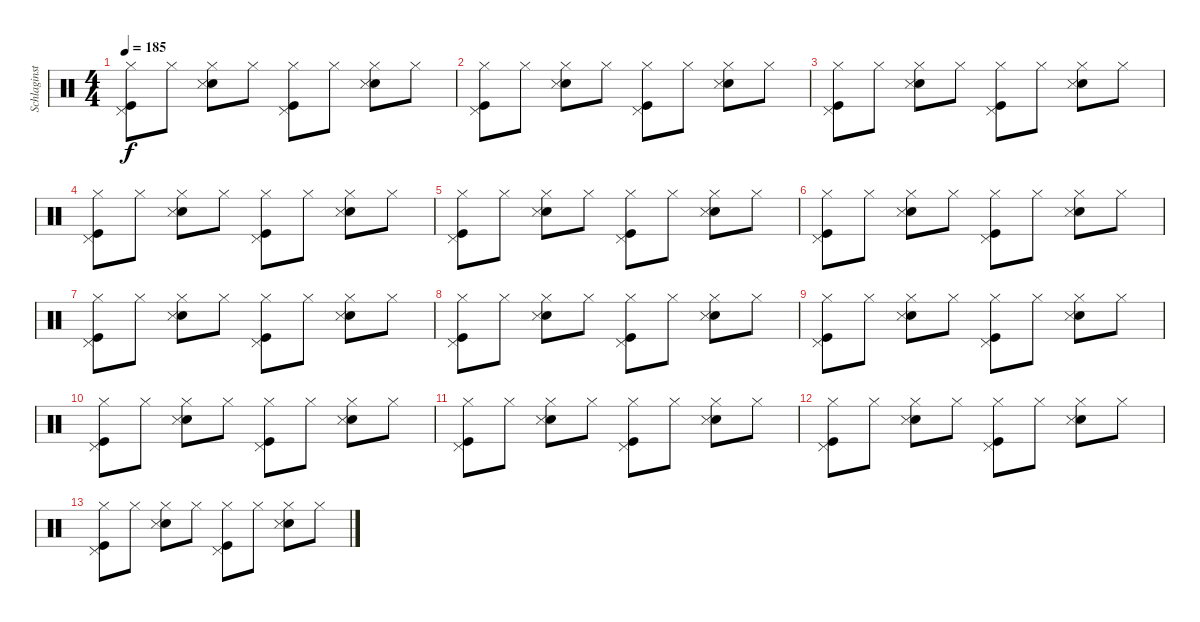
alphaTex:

\track ("Schlaginstrumente - Auswahl" "Schlaginst") {instrument percussion}
\staff {score}
\articulation defaults
\ts (4 4)
\tempo 185
\clef neutral
\ks c
("Kick (hit)" "Pedal Hi-Hat (hit)" "Hi-Hat (closed)").8{dy f} "Hi-Hat (closed)".8 ("Snare (hit) 2" "Snare (side stick) 3" "Hi-Hat (closed)").8 "Hi-Hat (closed)".8 ("Kick (hit)" "Pedal Hi-Hat (hit)" "Hi-Hat (closed)").8 "Hi-Hat (closed)".8 ("Snare (hit) 2" "Snare (side stick) 3" "Hi-Hat (closed)").8 "Hi-Hat (closed)".8 |
("Kick (hit)" "Pedal Hi-Hat (hit)" "Hi-Hat (closed)").8 "Hi-Hat (closed)".8 ("Snare (hit) 2" "Snare (side stick) 3" "Hi-Hat (closed)").8 "Hi-Hat (closed)".8 ("Kick (hit)" "Pedal Hi-Hat (hit)" "Hi-Hat (closed)").8 "Hi-Hat (closed)".8 ("Snare (hit) 2" "Snare (side stick) 3" "Hi-Hat (closed)").8 "Hi-Hat (closed)".8 |
("Kick (hit)" "Pedal Hi-Hat (hit)" "Hi-Hat (closed)").8 "Hi-Hat (closed)".8 ("Snare (hit) 2" "Snare (side stick) 3" "Hi-Hat (closed)").8 "Hi-Hat (closed)".8 ("Kick (hit)" "Pedal Hi-Hat (hit)" "Hi-Hat (closed)").8 "Hi-Hat (closed)".8 ("Snare (hit) 2" "Snare (side stick) 3" "Hi-Hat (closed)").8 "Hi-Hat (closed)".8 |
("Kick (hit)" "Pedal Hi-Hat (hit)" "Hi-Hat (closed)").8 "Hi-Hat (closed)".8 ("Snare (hit) 2" "Snare (side stick) 3" "Hi-Hat (closed)").8 "Hi-Hat (closed)".8 ("Kick (hit)" "Pedal Hi-Hat (hit)" "Hi-Hat (closed)").8 "Hi-Hat (closed)".8 ("Snare (hit) 2" "Snare (side stick) 3" "Hi-Hat (closed)").8 "Hi-Hat (closed)".8 |
("Kick (hit)" "Pedal Hi-Hat (hit)" "Hi-Hat (closed)").8 "Hi-Hat (closed)".8 ("Snare (hit) 2" "Snare (side stick) 3" "Hi-Hat (closed)").8 "Hi-Hat (closed)".8 ("Kick (hit)" "Pedal Hi-Hat (hit)" "Hi-Hat (closed)").8 "Hi-Hat (closed)".8 ("Snare (hit) 2" "Snare (side stick) 3" "Hi-Hat (closed)").8 "Hi-Hat (closed)".8 |
("Kick (hit)" "Pedal Hi-Hat (hit)" "Hi-Hat (closed)").8 "Hi-Hat (closed)".8 ("Snare (hit) 2" "Snare (side stick) 3" "Hi-Hat (closed)").8 "Hi-Hat (closed)".8 ("Kick (hit)" "Pedal Hi-Hat (hit)" "Hi-Hat (closed)").8 "Hi-Hat (closed)".8 ("Snare (hit) 2" "Snare (side stick) 3" "Hi-Hat (closed)").8 "Hi-Hat (closed)".8 |
("Kick (hit)" "Pedal Hi-Hat (hit)" "Hi-Hat (closed)").8 "Hi-Hat (closed)".8 ("Snare (hit) 2" "Snare (side stick) 3" "Hi-Hat (closed)").8 "Hi-Hat (closed)".8 ("Kick (hit)" "Pedal Hi-Hat (hit)" "Hi-Hat (closed)").8 "Hi-Hat (closed)".8 ("Snare (hit) 2" "Snare (side stick) 3" "Hi-Hat (closed)").8 "Hi-Hat (closed)".8 |
("Kick (hit)" "Pedal Hi-Hat (hit)" "Hi-Hat (closed)").8 "Hi-Hat (closed)".8 ("Snare (hit) 2" "Snare (side stick) 3" "Hi-Hat (closed)").8 "Hi-Hat (closed)".8 ("Kick (hit)" "Pedal Hi-Hat (hit)" "Hi-Hat (closed)").8 "Hi-Hat (closed)".8 ("Snare (hit) 2" "Snare (side stick) 3" "Hi-Hat (closed)").8 "Hi-Hat (closed)".8 |
("Kick (hit)" "Pedal Hi-Hat (hit)" "Hi-Hat (closed)").8 "Hi-Hat (closed)".8 ("Snare (hit) 2" "Snare (side stick) 3" "Hi-Hat (closed)").8 "Hi-Hat (closed)".8 ("Kick (hit)" "Pedal Hi-Hat (hit)" "Hi-Hat (closed)").8 "Hi-Hat (closed)".8 ("Snare (hit) 2" "Snare (side stick) 3" "Hi-Hat (closed)").8 "Hi-Hat (closed)".8 |
("Kick (hit)" "Pedal Hi-Hat (hit)" "Hi-Hat (closed)").8 "Hi-Hat (closed)".8 ("Snare (hit) 2" "Snare (side stick) 3" "Hi-Hat (closed)").8 "Hi-Hat (closed)".8 ("Kick (hit)" "Pedal Hi-Hat (hit)" "Hi-Hat (closed)").8 "Hi-Hat (closed)".8 ("Snare (hit) 2" "Snare (side stick) 3" "Hi-Hat (closed)").8 "Hi-Hat (closed)".8 |
("Kick (hit)" "Pedal Hi-Hat (hit)" "Hi-Hat (closed)").8 "Hi-Hat (closed)".8 ("Snare (hit) 2" "Snare (side stick) 3" "Hi-Hat (closed)").8 "Hi-Hat (closed)".8 ("Kick (hit)" "Pedal Hi-Hat (hit)" "Hi-Hat (closed)").8 "Hi-Hat (closed)".8 ("Snare (hit) 2" "Snare (side stick) 3" "Hi-Hat (closed)").8 "Hi-Hat (closed)".8 |
("Kick (hit)" "Pedal Hi-Hat (hit)" "Hi-Hat (closed)").8 "Hi-Hat (closed)".8 ("Snare (hit) 2" "Snare (side stick) 3" "Hi-Hat (closed)").8 "Hi-Hat (closed)".8 ("Kick (hit)" "Pedal Hi-Hat (hit)" "Hi-Hat (closed)").8 "Hi-Hat (closed)".8 ("Snare (hit) 2" "Snare (side stick) 3" "Hi-Hat (closed)").8 "Hi-Hat (closed)".8 |
("Kick (hit)" "Pedal Hi-Hat (hit)" "Hi-Hat (closed)").8 "Hi-Hat (closed)".8 ("Snare (hit) 2" "Snare (side stick) 3" "Hi-Hat (closed)").8 "Hi-Hat (closed)".8 ("Kick (hit)" "Pedal Hi-Hat (hit)" "Hi-Hat (closed)").8 "Hi-Hat (closed)".8 ("Snare (hit) 2" "Snare (side stick) 3" "Hi-Hat (closed)").8 "Hi-Hat (closed)".8
